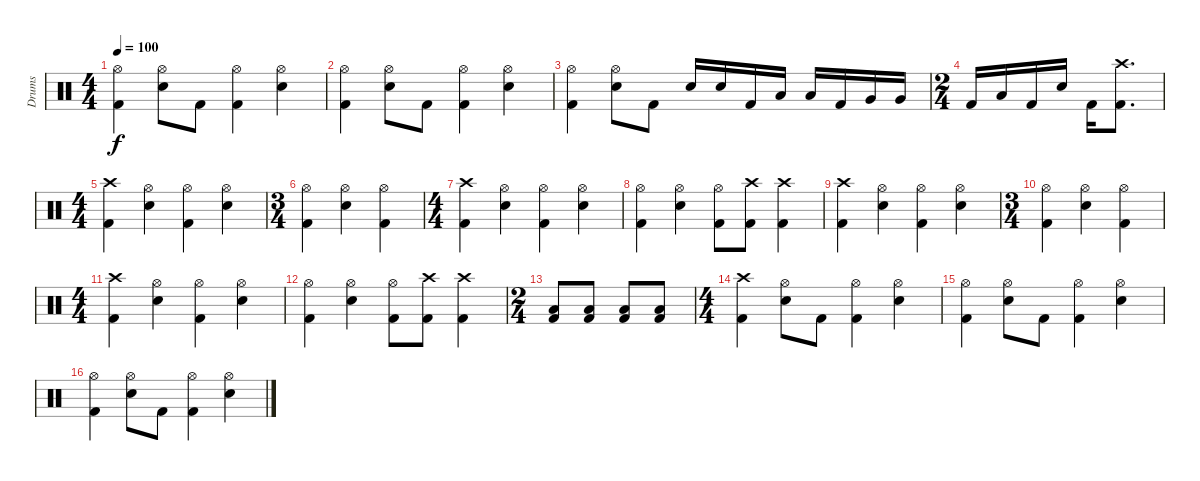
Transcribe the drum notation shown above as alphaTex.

\track ("Drums" "Drums") {instrument percussion}
\staff {score}
\articulation defaults
\ts (4 4)
\tempo 100
\clef neutral
\ks c
("Kick (hit) 2" "Hi-Hat (open)").4{dy f} ("Snare (hit) 2" "Hi-Hat (open)").8 "Kick (hit) 2".8 ("Kick (hit) 2" "Hi-Hat (open)").4 ("Snare (hit) 2" "Hi-Hat (open)").4 |
("Kick (hit) 2" "Hi-Hat (open)").4 ("Snare (hit) 2" "Hi-Hat (open)").8 "Kick (hit) 2".8 ("Kick (hit) 2" "Hi-Hat (open)").4 ("Snare (hit) 2" "Hi-Hat (open)").4 |
("Kick (hit) 2" "Hi-Hat (open)").4 ("Snare (hit) 2" "Hi-Hat (open)").8 "Kick (hit) 2".8 "Snare (hit) 2".16 "Snare (hit) 2".16 "Kick (hit) 2".16 "Low Tom (hit)".16 "Low Tom (hit)".16 "Kick (hit) 2".16 "Very Low Tom (hit)".16 "Very Low Tom (hit)".16 |
\ts (2 4)
"Kick (hit) 2".16 "Low Floor Tom (hit)".16 "Kick (hit) 2".16 "Snare (hit) 2".16 "Kick (hit) 2".16 ("Kick (hit) 2" "Crash high (hit)").8{d} |
\ts (4 4)
("Kick (hit) 2" "Crash high (hit)").4 ("Snare (hit) 2" "Hi-Hat (open)").4 ("Kick (hit) 2" "Hi-Hat (open)").4 ("Snare (hit) 2" "Hi-Hat (open)").4 |
\ts (3 4)
("Kick (hit) 2" "Hi-Hat (open)").4 ("Snare (hit) 2" "Hi-Hat (open)").4 ("Kick (hit) 2" "Hi-Hat (open)").4 |
\ts (4 4)
("Kick (hit) 2" "Crash high (hit)").4 ("Snare (hit) 2" "Hi-Hat (open)").4 ("Kick (hit) 2" "Hi-Hat (open)").4 ("Snare (hit) 2" "Hi-Hat (open)").4 |
("Kick (hit) 2" "Hi-Hat (open)").4 ("Snare (hit) 2" "Hi-Hat (open)").4 ("Kick (hit) 2" "Hi-Hat (open)").8 ("Kick (hit) 2" "Crash high (hit)").8 ("Kick (hit) 2" "Crash high (hit)").4 |
("Kick (hit) 2" "Crash high (hit)").4 ("Snare (hit) 2" "Hi-Hat (open)").4 ("Kick (hit) 2" "Hi-Hat (open)").4 ("Snare (hit) 2" "Hi-Hat (open)").4 |
\ts (3 4)
("Kick (hit) 2" "Hi-Hat (open)").4 ("Snare (hit) 2" "Hi-Hat (open)").4 ("Kick (hit) 2" "Hi-Hat (open)").4 |
\ts (4 4)
("Kick (hit) 2" "Crash high (hit)").4 ("Snare (hit) 2" "Hi-Hat (open)").4 ("Kick (hit) 2" "Hi-Hat (open)").4 ("Snare (hit) 2" "Hi-Hat (open)").4 |
("Kick (hit) 2" "Hi-Hat (open)").4 ("Snare (hit) 2" "Hi-Hat (open)").4 ("Kick (hit) 2" "Hi-Hat (open)").8 ("Kick (hit) 2" "Crash high (hit)").8 ("Kick (hit) 2" "Crash high (hit)").4 |
\ts (2 4)
("Kick (hit) 2" "Low Floor Tom (hit)").8 ("Kick (hit) 2" "Low Floor Tom (hit)").8 ("Kick (hit) 2" "Low Floor Tom (hit)").8 ("Kick (hit) 2" "Low Floor Tom (hit)").8 |
\ts (4 4)
("Kick (hit) 2" "Crash high (hit)").4 ("Snare (hit) 2" "Hi-Hat (open)").8 "Kick (hit) 2".8 ("Kick (hit) 2" "Hi-Hat (open)").4 ("Snare (hit) 2" "Hi-Hat (open)").4 |
("Kick (hit) 2" "Hi-Hat (open)").4 ("Snare (hit) 2" "Hi-Hat (open)").8 "Kick (hit) 2".8 ("Kick (hit) 2" "Hi-Hat (open)").4 ("Snare (hit) 2" "Hi-Hat (open)").4 |
("Kick (hit) 2" "Hi-Hat (open)").4 ("Snare (hit) 2" "Hi-Hat (open)").8 "Kick (hit) 2".8 ("Kick (hit) 2" "Hi-Hat (open)").4 ("Snare (hit) 2" "Hi-Hat (open)").4
